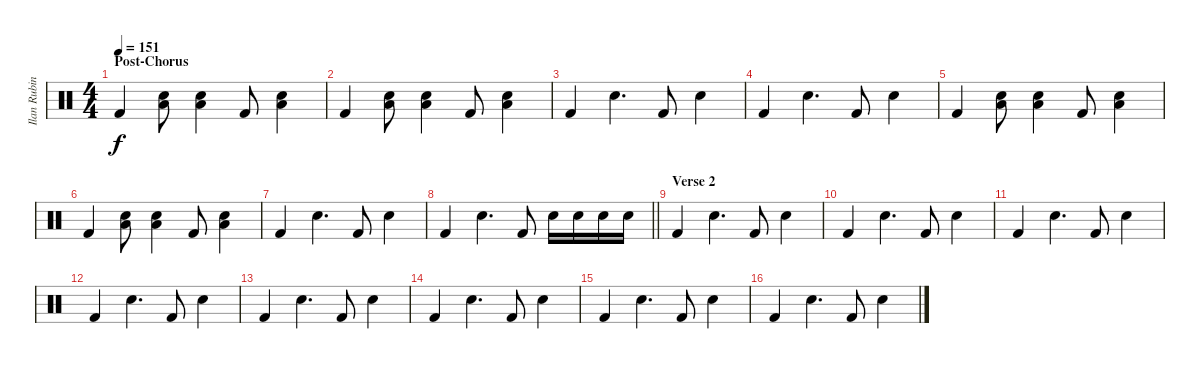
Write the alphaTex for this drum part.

\track ("Ilan Rubin [Drums]" "Ilan Rubin") {instrument percussion}
\staff {score}
\articulation defaults
\ts (4 4)
\section ("" "Post-Chorus")
\tempo 151
\clef neutral
\ks c "Kick (hit) 2".4{dy f}
("Low Floor Tom (hit)" "Snare (hit) 2").8 ("Low Floor Tom (hit)" "Snare (hit) 2").4 "Kick (hit) 2".8 ("Low Floor Tom (hit)" "Snare (hit) 2").4 |
"Kick (hit) 2".4 ("Low Floor Tom (hit)" "Snare (hit) 2").8 ("Low Floor Tom (hit)" "Snare (hit) 2").4 "Kick (hit) 2".8 ("Low Floor Tom (hit)" "Snare (hit) 2").4 |
"Kick (hit) 2".4 "Snare (hit) 2".4{d} "Kick (hit) 2".8 "Snare (hit) 2".4 |
"Kick (hit) 2".4 "Snare (hit) 2".4{d} "Kick (hit) 2".8 "Snare (hit) 2".4 |
"Kick (hit) 2".4 ("Low Floor Tom (hit)" "Snare (hit) 2").8 ("Low Floor Tom (hit)" "Snare (hit) 2").4 "Kick (hit) 2".8 ("Low Floor Tom (hit)" "Snare (hit) 2").4 |
"Kick (hit) 2".4 ("Low Floor Tom (hit)" "Snare (hit) 2").8 ("Low Floor Tom (hit)" "Snare (hit) 2").4 "Kick (hit) 2".8 ("Low Floor Tom (hit)" "Snare (hit) 2").4 |
"Kick (hit) 2".4 "Snare (hit) 2".4{d} "Kick (hit) 2".8 "Snare (hit) 2".4 |
\barLineRight lightlight "Kick (hit) 2".4 "Snare (hit) 2".4{d} "Kick (hit) 2".8 "Snare (hit) 2".16 "Snare (hit) 2".16 "Snare (hit) 2".16 "Snare (hit) 2".16
|
\section ("" "Verse 2")
"Kick (hit) 2".4 "Snare (hit) 2".4{d} "Kick (hit) 2".8 "Snare (hit) 2".4 |
"Kick (hit) 2".4 "Snare (hit) 2".4{d} "Kick (hit) 2".8 "Snare (hit) 2".4 |
"Kick (hit) 2".4 "Snare (hit) 2".4{d} "Kick (hit) 2".8 "Snare (hit) 2".4 |
"Kick (hit) 2".4 "Snare (hit) 2".4{d} "Kick (hit) 2".8 "Snare (hit) 2".4 |
"Kick (hit) 2".4 "Snare (hit) 2".4{d} "Kick (hit) 2".8 "Snare (hit) 2".4 |
"Kick (hit) 2".4 "Snare (hit) 2".4{d} "Kick (hit) 2".8 "Snare (hit) 2".4 |
"Kick (hit) 2".4 "Snare (hit) 2".4{d} "Kick (hit) 2".8 "Snare (hit) 2".4 |
"Kick (hit) 2".4 "Snare (hit) 2".4{d} "Kick (hit) 2".8 "Snare (hit) 2".4
